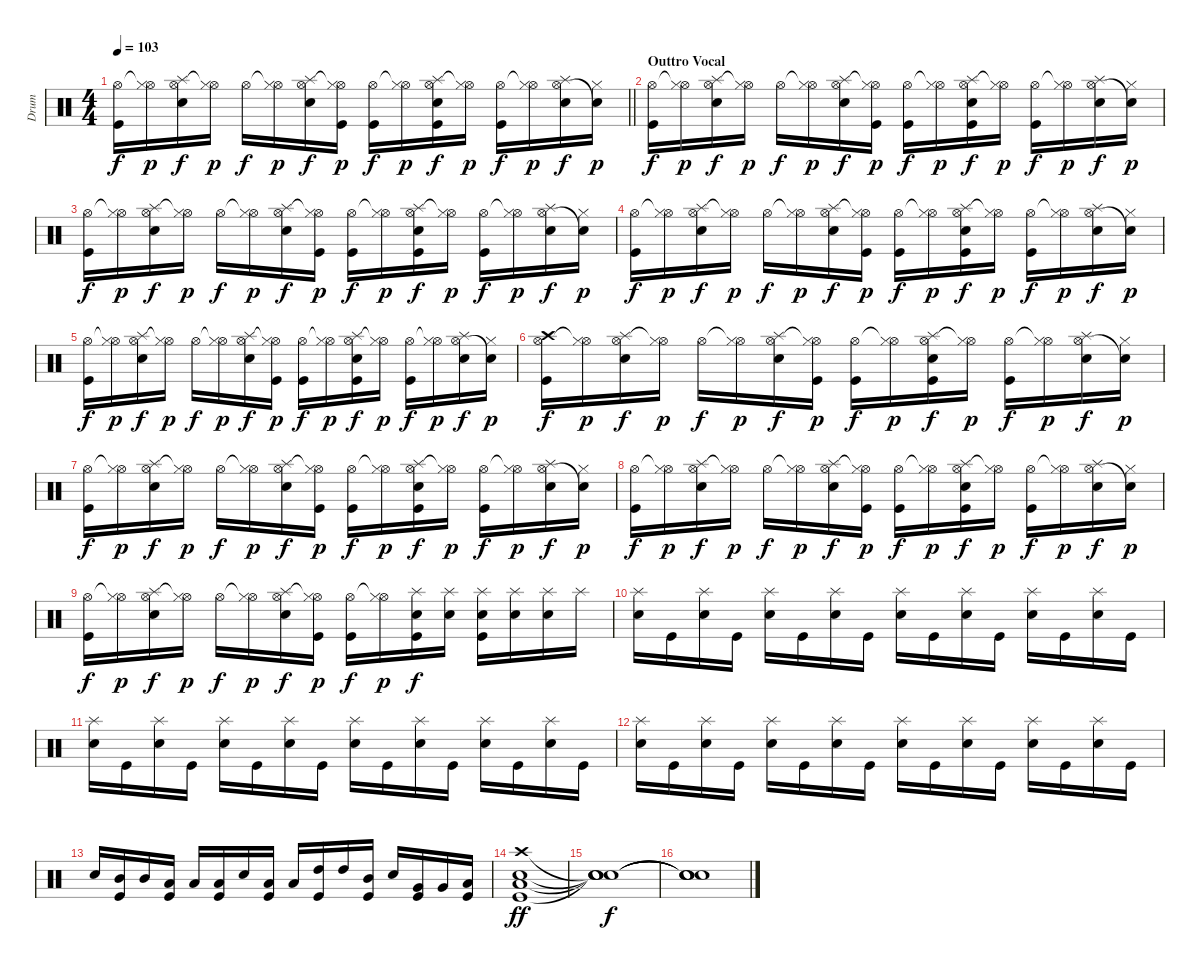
\track ("Drum" "Drum") {instrument percussion}
\staff {score}
\articulation defaults
\ts (4 4)
\tempo 103
\clef neutral
\barLineRight lightlight
\ks c
("Hi-Hat (open)" "Kick (hit)").16{dy f} ("Hi-Hat (open)"{t} "Hi-Hat (closed)").16{dy p} ("Hi-Hat (open)" "Splash (hit)" "Snare (hit) 2").16{dy f} ("Hi-Hat (open)"{t} "Hi-Hat (closed)").16{dy p} "Hi-Hat (open)".16{dy f} ("Hi-Hat (open)"{t} "Hi-Hat (closed)").16{dy p} ("Hi-Hat (open)" "Splash (hit)" "Snare (hit) 2").16{dy f} ("Hi-Hat (open)"{t} "Hi-Hat (closed)" "Kick (hit)").16{dy p} ("Hi-Hat (open)" "Kick (hit)").16{dy f} ("Hi-Hat (open)"{t} "Hi-Hat (closed)").16{dy p} ("Hi-Hat (open)" "Splash (hit)" "Snare (hit) 2" "Kick (hit)").16{dy f} ("Hi-Hat (open)"{t} "Hi-Hat (closed)").16{dy p} ("Hi-Hat (open)" "Kick (hit)").16{dy f} ("Hi-Hat (open)"{t} "Hi-Hat (closed)").16{dy p} ("Hi-Hat (open)" "Splash (hit)" "Snare (hit) 2").16{dy f} ("Snare (hit)"{t} "Hi-Hat (closed)").16{dy p} |
\section ("" "Outtro Vocal")
("Hi-Hat (open)" "Kick (hit)").16{dy f} ("Hi-Hat (open)"{t} "Hi-Hat (closed)").16{dy p} ("Hi-Hat (open)" "Splash (hit)" "Snare (hit) 2").16{dy f} ("Hi-Hat (open)"{t} "Hi-Hat (closed)").16{dy p} "Hi-Hat (open)".16{dy f} ("Hi-Hat (open)"{t} "Hi-Hat (closed)").16{dy p} ("Hi-Hat (open)" "Splash (hit)" "Snare (hit) 2").16{dy f} ("Hi-Hat (open)"{t} "Hi-Hat (closed)" "Kick (hit)").16{dy p} ("Hi-Hat (open)" "Kick (hit)").16{dy f} ("Hi-Hat (open)"{t} "Hi-Hat (closed)").16{dy p} ("Hi-Hat (open)" "Splash (hit)" "Snare (hit) 2" "Kick (hit)").16{dy f} ("Hi-Hat (open)"{t} "Hi-Hat (closed)").16{dy p} ("Hi-Hat (open)" "Kick (hit)").16{dy f} ("Hi-Hat (open)"{t} "Hi-Hat (closed)").16{dy p} ("Hi-Hat (open)" "Splash (hit)" "Snare (hit) 2").16{dy f} ("Snare (hit)"{t} "Hi-Hat (closed)").16{dy p} |
("Hi-Hat (open)" "Kick (hit)").16{dy f} ("Hi-Hat (open)"{t} "Hi-Hat (closed)").16{dy p} ("Hi-Hat (open)" "Splash (hit)" "Snare (hit) 2").16{dy f} ("Hi-Hat (open)"{t} "Hi-Hat (closed)").16{dy p} "Hi-Hat (open)".16{dy f} ("Hi-Hat (open)"{t} "Hi-Hat (closed)").16{dy p} ("Hi-Hat (open)" "Splash (hit)" "Snare (hit) 2").16{dy f} ("Hi-Hat (open)"{t} "Hi-Hat (closed)" "Kick (hit)").16{dy p} ("Hi-Hat (open)" "Kick (hit)").16{dy f} ("Hi-Hat (open)"{t} "Hi-Hat (closed)").16{dy p} ("Hi-Hat (open)" "Splash (hit)" "Snare (hit) 2" "Kick (hit)").16{dy f} ("Hi-Hat (open)"{t} "Hi-Hat (closed)").16{dy p} ("Hi-Hat (open)" "Kick (hit)").16{dy f} ("Hi-Hat (open)"{t} "Hi-Hat (closed)").16{dy p} ("Hi-Hat (open)" "Splash (hit)" "Snare (hit) 2").16{dy f} ("Snare (hit)"{t} "Hi-Hat (closed)").16{dy p} |
("Hi-Hat (open)" "Kick (hit)").16{dy f} ("Hi-Hat (open)"{t} "Hi-Hat (closed)").16{dy p} ("Hi-Hat (open)" "Splash (hit)" "Snare (hit) 2").16{dy f} ("Hi-Hat (open)"{t} "Hi-Hat (closed)").16{dy p} "Hi-Hat (open)".16{dy f} ("Hi-Hat (open)"{t} "Hi-Hat (closed)").16{dy p} ("Hi-Hat (open)" "Splash (hit)" "Snare (hit) 2").16{dy f} ("Hi-Hat (open)"{t} "Hi-Hat (closed)" "Kick (hit)").16{dy p} ("Hi-Hat (open)" "Kick (hit)").16{dy f} ("Hi-Hat (open)"{t} "Hi-Hat (closed)").16{dy p} ("Hi-Hat (open)" "Splash (hit)" "Snare (hit) 2" "Kick (hit)").16{dy f} ("Hi-Hat (open)"{t} "Hi-Hat (closed)").16{dy p} ("Hi-Hat (open)" "Kick (hit)").16{dy f} ("Hi-Hat (open)"{t} "Hi-Hat (closed)").16{dy p} ("Hi-Hat (open)" "Splash (hit)" "Snare (hit) 2").16{dy f} ("Snare (hit)"{t} "Hi-Hat (closed)").16{dy p} |
("Hi-Hat (open)" "Kick (hit)").16{dy f} ("Hi-Hat (open)"{t} "Hi-Hat (closed)").16{dy p} ("Hi-Hat (open)" "Splash (hit)" "Snare (hit) 2").16{dy f} ("Hi-Hat (open)"{t} "Hi-Hat (closed)").16{dy p} "Hi-Hat (open)".16{dy f} ("Hi-Hat (open)"{t} "Hi-Hat (closed)").16{dy p} ("Hi-Hat (open)" "Splash (hit)" "Snare (hit) 2").16{dy f} ("Hi-Hat (open)"{t} "Hi-Hat (closed)" "Kick (hit)").16{dy p} ("Hi-Hat (open)" "Kick (hit)").16{dy f} ("Hi-Hat (open)"{t} "Hi-Hat (closed)").16{dy p} ("Hi-Hat (open)" "Splash (hit)" "Snare (hit) 2" "Kick (hit)").16{dy f} ("Hi-Hat (open)"{t} "Hi-Hat (closed)").16{dy p} ("Hi-Hat (open)" "Kick (hit)").16{dy f} ("Hi-Hat (open)"{t} "Hi-Hat (closed)").16{dy p} ("Hi-Hat (open)" "Splash (hit)" "Snare (hit) 2").16{dy f} ("Snare (hit)"{t} "Hi-Hat (closed)").16{dy p} |
("Hi-Hat (open)" "Crash high (hit)" "Kick (hit)").16{dy f} ("Hi-Hat (open)"{t} "Hi-Hat (closed)").16{dy p} ("Hi-Hat (open)" "Splash (hit)" "Snare (hit) 2").16{dy f} ("Hi-Hat (open)"{t} "Hi-Hat (closed)").16{dy p} "Hi-Hat (open)".16{dy f} ("Hi-Hat (open)"{t} "Hi-Hat (closed)").16{dy p} ("Hi-Hat (open)" "Splash (hit)" "Snare (hit) 2").16{dy f} ("Hi-Hat (open)"{t} "Hi-Hat (closed)" "Kick (hit)").16{dy p} ("Hi-Hat (open)" "Kick (hit)").16{dy f} ("Hi-Hat (open)"{t} "Hi-Hat (closed)").16{dy p} ("Hi-Hat (open)" "Splash (hit)" "Snare (hit) 2" "Kick (hit)").16{dy f} ("Hi-Hat (open)"{t} "Hi-Hat (closed)").16{dy p} ("Hi-Hat (open)" "Kick (hit)").16{dy f} ("Hi-Hat (open)"{t} "Hi-Hat (closed)").16{dy p} ("Hi-Hat (open)" "Splash (hit)" "Snare (hit) 2").16{dy f} ("Snare (hit)"{t} "Hi-Hat (closed)").16{dy p} |
("Hi-Hat (open)" "Kick (hit)").16{dy f} ("Hi-Hat (open)"{t} "Hi-Hat (closed)").16{dy p} ("Hi-Hat (open)" "Splash (hit)" "Snare (hit) 2").16{dy f} ("Hi-Hat (open)"{t} "Hi-Hat (closed)").16{dy p} "Hi-Hat (open)".16{dy f} ("Hi-Hat (open)"{t} "Hi-Hat (closed)").16{dy p} ("Hi-Hat (open)" "Splash (hit)" "Snare (hit) 2").16{dy f} ("Hi-Hat (open)"{t} "Hi-Hat (closed)" "Kick (hit)").16{dy p} ("Hi-Hat (open)" "Kick (hit)").16{dy f} ("Hi-Hat (open)"{t} "Hi-Hat (closed)").16{dy p} ("Hi-Hat (open)" "Splash (hit)" "Snare (hit) 2" "Kick (hit)").16{dy f} ("Hi-Hat (open)"{t} "Hi-Hat (closed)").16{dy p} ("Hi-Hat (open)" "Kick (hit)").16{dy f} ("Hi-Hat (open)"{t} "Hi-Hat (closed)").16{dy p} ("Hi-Hat (open)" "Splash (hit)" "Snare (hit) 2").16{dy f} ("Snare (hit)"{t} "Hi-Hat (closed)").16{dy p} |
("Hi-Hat (open)" "Kick (hit)").16{dy f} ("Hi-Hat (open)"{t} "Hi-Hat (closed)").16{dy p} ("Hi-Hat (open)" "Splash (hit)" "Snare (hit) 2").16{dy f} ("Hi-Hat (open)"{t} "Hi-Hat (closed)").16{dy p} "Hi-Hat (open)".16{dy f} ("Hi-Hat (open)"{t} "Hi-Hat (closed)").16{dy p} ("Hi-Hat (open)" "Splash (hit)" "Snare (hit) 2").16{dy f} ("Hi-Hat (open)"{t} "Hi-Hat (closed)" "Kick (hit)").16{dy p} ("Hi-Hat (open)" "Kick (hit)").16{dy f} ("Hi-Hat (open)"{t} "Hi-Hat (closed)").16{dy p} ("Hi-Hat (open)" "Splash (hit)" "Snare (hit) 2" "Kick (hit)").16{dy f} ("Hi-Hat (open)"{t} "Hi-Hat (closed)").16{dy p} ("Hi-Hat (open)" "Kick (hit)").16{dy f} ("Hi-Hat (open)"{t} "Hi-Hat (closed)").16{dy p} ("Hi-Hat (open)" "Splash (hit)" "Snare (hit) 2").16{dy f} ("Snare (hit)"{t} "Hi-Hat (closed)").16{dy p} |
("Hi-Hat (open)" "Kick (hit)").16{dy f} ("Hi-Hat (open)"{t} "Hi-Hat (closed)").16{dy p} ("Hi-Hat (open)" "Splash (hit)" "Snare (hit) 2").16{dy f} ("Hi-Hat (open)"{t} "Hi-Hat (closed)").16{dy p} "Hi-Hat (open)".16{dy f} ("Hi-Hat (open)"{t} "Hi-Hat (closed)").16{dy p} ("Hi-Hat (open)" "Splash (hit)" "Snare (hit) 2").16{dy f} ("Hi-Hat (open)"{t} "Hi-Hat (closed)" "Kick (hit)").16{dy p} ("Hi-Hat (open)" "Kick (hit)").16{dy f} ("Hi-Hat (open)"{t} "Hi-Hat (closed)").16{dy p} ("Splash (hit)" "Snare (hit) 2" "Kick (hit)").16{dy f} ("Splash (hit)" "Snare (hit) 2").16 ("Splash (hit)" "Snare (hit) 2" "Kick (hit)").16 ("Splash (hit)" "Snare (hit) 2").16 ("Splash (hit)" "Snare (hit) 2").16 "Splash (hit)".16 |
("Splash (hit)" "Snare (hit) 2").16 "Kick (hit)".16 ("Splash (hit)" "Snare (hit) 2").16 "Kick (hit)".16 ("Splash (hit)" "Snare (hit) 2").16 "Kick (hit)".16 ("Splash (hit)" "Snare (hit) 2").16 "Kick (hit)".16 ("Splash (hit)" "Snare (hit) 2").16 "Kick (hit)".16 ("Splash (hit)" "Snare (hit) 2").16 "Kick (hit)".16 ("Splash (hit)" "Snare (hit) 2").16 "Kick (hit)".16 ("Splash (hit)" "Snare (hit) 2").16 "Kick (hit)".16 |
("Splash (hit)" "Snare (hit) 2").16 "Kick (hit)".16 ("Splash (hit)" "Snare (hit) 2").16 "Kick (hit)".16 ("Splash (hit)" "Snare (hit) 2").16 "Kick (hit)".16 ("Splash (hit)" "Snare (hit) 2").16 "Kick (hit)".16 ("Splash (hit)" "Snare (hit) 2").16 "Kick (hit)".16 ("Splash (hit)" "Snare (hit) 2").16 "Kick (hit)".16 ("Splash (hit)" "Snare (hit) 2").16 "Kick (hit)".16 ("Splash (hit)" "Snare (hit) 2").16 "Kick (hit)".16 |
("Splash (hit)" "Snare (hit) 2").16 "Kick (hit)".16 ("Splash (hit)" "Snare (hit) 2").16 "Kick (hit)".16 ("Splash (hit)" "Snare (hit) 2").16 "Kick (hit)".16 ("Splash (hit)" "Snare (hit) 2").16 "Kick (hit)".16 ("Splash (hit)" "Snare (hit) 2").16 "Kick (hit)".16 ("Splash (hit)" "Snare (hit) 2").16 "Kick (hit)".16 ("Splash (hit)" "Snare (hit) 2").16 "Kick (hit)".16 ("Splash (hit)" "Snare (hit) 2").16 "Kick (hit)".16 |
"Snare (hit) 2".16 ("Mid Tom (hit)" "Kick (hit)").16 "Mid Tom (hit)".16 ("Low Tom (hit)" "Kick (hit)").16 "Low Tom (hit)".16 ("Low Tom (hit)" "Kick (hit)").16 "Snare (hit) 2".16 ("Low Tom (hit)" "Kick (hit)").16 "Low Tom (hit)".16 ("High Tom (hit)" "Kick (hit)").16 "High Tom (hit)".16 ("Mid Tom (hit)" "Kick (hit)").16 "Snare (hit) 2".16 ("Very Low Tom (hit)" "Kick (hit)").16 "Very Low Tom (hit)".16 ("Low Floor Tom (hit)" "Kick (hit)").16 |
("Crash high (hit)" "Snare (hit) 2" "Low Floor Tom (hit)" "Kick (hit)").1{dy ff} |
("Snare (hit)"{t} "Snare (hit)"{t} "Snare (hit)"{t} "Snare (hit)"{t}).1{dy f} |
("Snare (hit)"{t} "Snare (hit)"{t} "Snare (hit)"{t} "Snare (hit)"{t}).1
